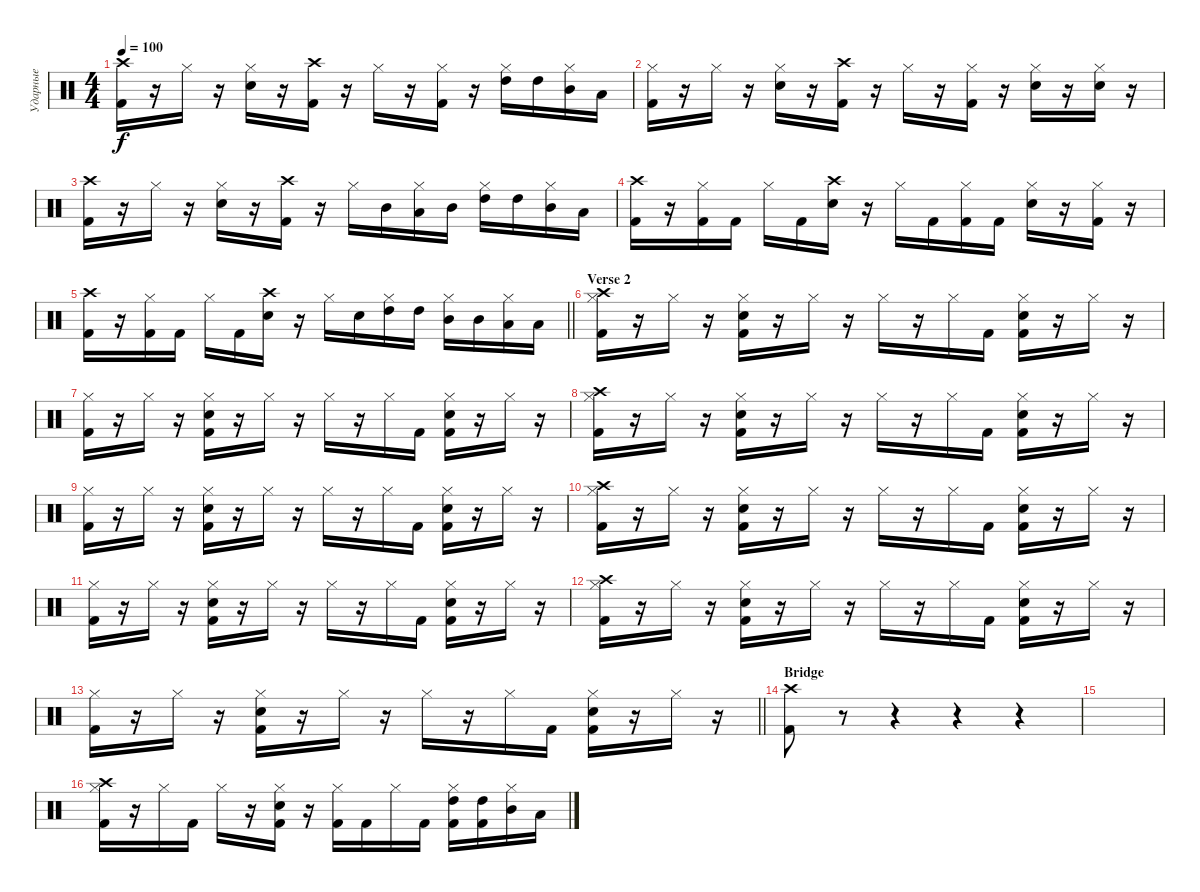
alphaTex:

\track ("Ударные" "Ударные") {instrument percussion}
\staff {score}
\articulation defaults
\ts (4 4)
\tempo 100
\clef neutral
\ks c
("Crash high (hit)" "Kick (hit) 2").16{dy f} r.16 "Hi-Hat (closed)".16 r.16 ("Hi-Hat (closed)" "Electric Snare (hit)").16 r.16 ("Crash high (hit)" "Kick (hit) 2").16 r.16 "Hi-Hat (closed)".16 r.16 ("Hi-Hat (closed)" "Kick (hit) 2").16 r.16 ("Hi-Hat (closed)" "High Tom (hit)").16 "High Tom (hit)".16 ("Hi-Hat (closed)" "Mid Tom (hit)").16 "Low Tom (hit)".16 |
("Hi-Hat (closed)" "Kick (hit) 2").16 r.16 "Hi-Hat (closed)".16 r.16 ("Hi-Hat (closed)" "Electric Snare (hit)").16 r.16 ("Crash high (hit)" "Kick (hit) 2").16 r.16 "Hi-Hat (closed)".16 r.16 ("Hi-Hat (closed)" "Kick (hit) 2").16 r.16 ("Hi-Hat (closed)" "Electric Snare (hit)").16 r.16 ("Hi-Hat (closed)" "Electric Snare (hit)").16 r.16 |
("Crash high (hit)" "Kick (hit) 2").16 r.16 "Hi-Hat (closed)".16 r.16 ("Hi-Hat (closed)" "Electric Snare (hit)").16 r.16 ("Crash high (hit)" "Kick (hit) 2").16 r.16 "Hi-Hat (closed)".16 "Mid Tom (hit)".16 ("Hi-Hat (closed)" "Low Tom (hit)").16 "Mid Tom (hit)".16 ("Hi-Hat (closed)" "High Tom (hit)").16 "High Tom (hit)".16 ("Hi-Hat (closed)" "Mid Tom (hit)").16 "Low Tom (hit)".16 |
("Crash high (hit)" "Kick (hit) 2").16 r.16 ("Hi-Hat (closed)" "Kick (hit) 2").16 "Kick (hit) 2".16 "Hi-Hat (closed)".16 "Kick (hit) 2".16 ("Crash high (hit)" "Electric Snare (hit)").16 r.16 "Hi-Hat (closed)".16 "Kick (hit) 2".16 ("Hi-Hat (closed)" "Kick (hit) 2").16 "Kick (hit) 2".16 ("Hi-Hat (closed)" "Electric Snare (hit)").16 r.16 ("Hi-Hat (closed)" "Kick (hit) 2").16 r.16 |
\barLineRight lightlight
("Crash high (hit)" "Kick (hit) 2").16 r.16 ("Hi-Hat (closed)" "Kick (hit) 2").16 "Kick (hit) 2".16 "Hi-Hat (closed)".16 "Kick (hit) 2".16 ("Crash high (hit)" "Electric Snare (hit)").16 r.16 "Hi-Hat (closed)".16 "Electric Snare (hit)".16 ("Hi-Hat (closed)" "High Tom (hit)").16 "High Tom (hit)".16 ("Hi-Hat (closed)" "Mid Tom (hit)").16 "Mid Tom (hit)".16 ("Hi-Hat (closed)" "Low Tom (hit)").16 "Low Tom (hit)".16 |
\section ("" "Verse 2")
("Hi-Hat (closed)" "Kick (hit) 2" "Crash high (hit)").16 r.16 "Hi-Hat (closed)".16 r.16 ("Hi-Hat (closed)" "Kick (hit) 2" "Electric Snare (hit)").16 r.16 "Hi-Hat (closed)".16 r.16 "Hi-Hat (closed)".16 r.16 "Hi-Hat (closed)".16 "Kick (hit) 2".16 ("Hi-Hat (closed)" "Kick (hit) 2" "Electric Snare (hit)").16 r.16 "Hi-Hat (closed)".16 r.16 |
("Hi-Hat (closed)" "Kick (hit) 2").16 r.16 "Hi-Hat (closed)".16 r.16 ("Hi-Hat (closed)" "Kick (hit) 2" "Electric Snare (hit)").16 r.16 "Hi-Hat (closed)".16 r.16 "Hi-Hat (closed)".16 r.16 "Hi-Hat (closed)".16 "Kick (hit) 2".16 ("Hi-Hat (closed)" "Kick (hit) 2" "Electric Snare (hit)").16 r.16 "Hi-Hat (closed)".16 r.16 |
("Hi-Hat (closed)" "Kick (hit) 2" "Crash high (hit)").16 r.16 "Hi-Hat (closed)".16 r.16 ("Hi-Hat (closed)" "Kick (hit) 2" "Electric Snare (hit)").16 r.16 "Hi-Hat (closed)".16 r.16 "Hi-Hat (closed)".16 r.16 "Hi-Hat (closed)".16 "Kick (hit) 2".16 ("Hi-Hat (closed)" "Kick (hit) 2" "Electric Snare (hit)").16 r.16 "Hi-Hat (closed)".16 r.16 |
("Hi-Hat (closed)" "Kick (hit) 2").16 r.16 "Hi-Hat (closed)".16 r.16 ("Hi-Hat (closed)" "Kick (hit) 2" "Electric Snare (hit)").16 r.16 "Hi-Hat (closed)".16 r.16 "Hi-Hat (closed)".16 r.16 "Hi-Hat (closed)".16 "Kick (hit) 2".16 ("Hi-Hat (closed)" "Kick (hit) 2" "Electric Snare (hit)").16 r.16 "Hi-Hat (closed)".16 r.16 |
("Hi-Hat (closed)" "Kick (hit) 2" "Crash high (hit)").16 r.16 "Hi-Hat (closed)".16 r.16 ("Hi-Hat (closed)" "Kick (hit) 2" "Electric Snare (hit)").16 r.16 "Hi-Hat (closed)".16 r.16 "Hi-Hat (closed)".16 r.16 "Hi-Hat (closed)".16 "Kick (hit) 2".16 ("Hi-Hat (closed)" "Kick (hit) 2" "Electric Snare (hit)").16 r.16 "Hi-Hat (closed)".16 r.16 |
("Hi-Hat (closed)" "Kick (hit) 2").16 r.16 "Hi-Hat (closed)".16 r.16 ("Hi-Hat (closed)" "Kick (hit) 2" "Electric Snare (hit)").16 r.16 "Hi-Hat (closed)".16 r.16 "Hi-Hat (closed)".16 r.16 "Hi-Hat (closed)".16 "Kick (hit) 2".16 ("Hi-Hat (closed)" "Kick (hit) 2" "Electric Snare (hit)").16 r.16 "Hi-Hat (closed)".16 r.16 |
("Hi-Hat (closed)" "Kick (hit) 2" "Crash high (hit)").16 r.16 "Hi-Hat (closed)".16 r.16 ("Hi-Hat (closed)" "Kick (hit) 2" "Electric Snare (hit)").16 r.16 "Hi-Hat (closed)".16 r.16 "Hi-Hat (closed)".16 r.16 "Hi-Hat (closed)".16 "Kick (hit) 2".16 ("Hi-Hat (closed)" "Kick (hit) 2" "Electric Snare (hit)").16 r.16 "Hi-Hat (closed)".16 r.16 |
\barLineRight lightlight
("Hi-Hat (closed)" "Kick (hit) 2").16 r.16 "Hi-Hat (closed)".16 r.16 ("Hi-Hat (closed)" "Kick (hit) 2" "Electric Snare (hit)").16 r.16 "Hi-Hat (closed)".16 r.16 "Hi-Hat (closed)".16 r.16 "Hi-Hat (closed)".16 "Kick (hit) 2".16 ("Hi-Hat (closed)" "Kick (hit) 2" "Electric Snare (hit)").16 r.16 "Hi-Hat (closed)".16 r.16 |
\section ("" "Bridge")
("Kick (hit) 2" "Crash high (hit)").8 r.8 r.4 r.4 r.4 |
|
("Hi-Hat (closed)" "Crash high (hit)" "Kick (hit) 2").16 r.16 "Hi-Hat (closed)".16 "Kick (hit) 2".16 "Hi-Hat (closed)".16 r.16 ("Hi-Hat (closed)" "Kick (hit) 2" "Electric Snare (hit)").16 r.16 ("Hi-Hat (closed)" "Kick (hit) 2").16 "Kick (hit) 2".16 "Hi-Hat (closed)".16 "Kick (hit) 2".16 ("Hi-Hat (closed)" "Kick (hit) 2" "High Tom (hit)").16 ("Kick (hit) 2" "High Tom (hit)").16 ("Hi-Hat (closed)" "Mid Tom (hit)").16 "Low Tom (hit)".16
